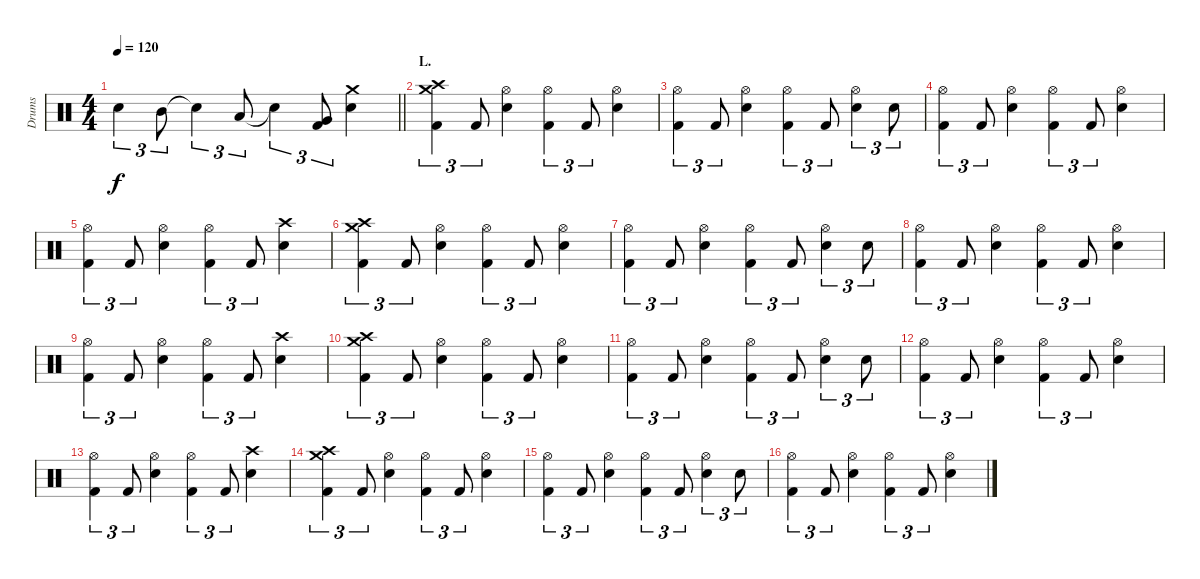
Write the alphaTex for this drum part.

\track ("Drums" "Drums") {instrument percussion}
\staff {score}
\articulation defaults
\ts (4 4)
\tempo 120
\clef neutral
\barLineRight lightlight
\ks c "Electric Snare (hit)".4{tu (3 2) dy f} "Mid Tom (hit)".8{tu (3 2)} "Snare (hit)"{t}.4{tu (3 2)} "Low Tom (hit)".8{tu (3 2)} "Snare (hit)"{t}.4{tu (3 2)}
("Very Low Tom (hit)" "Kick (hit) 2").8{tu (3 2)} ("Crash medium (hit)" "Electric Snare (hit)").4 |
\section ("" "L.")
("Crash medium (hit)" "Crash high (hit)" "Kick (hit) 2").4{tu (3 2)} "Kick (hit) 2".8{tu (3 2)} ("Hi-Hat (open)" "Electric Snare (hit)").4 ("Hi-Hat (open)" "Kick (hit) 2").4{tu (3 2)} "Kick (hit) 2".8{tu (3 2)} ("Hi-Hat (open)" "Electric Snare (hit)").4 |
("Hi-Hat (open)" "Kick (hit) 2").4{tu (3 2)} "Kick (hit) 2".8{tu (3 2)} ("Hi-Hat (open)" "Electric Snare (hit)").4 ("Hi-Hat (open)" "Kick (hit) 2").4{tu (3 2)} "Kick (hit) 2".8{tu (3 2)} ("Hi-Hat (open)" "Electric Snare (hit)").4{tu (3 2)} "Electric Snare (hit)".8{tu (3 2)} |
("Hi-Hat (open)" "Kick (hit) 2").4{tu (3 2)} "Kick (hit) 2".8{tu (3 2)} ("Hi-Hat (open)" "Electric Snare (hit)").4 ("Hi-Hat (open)" "Kick (hit) 2").4{tu (3 2)} "Kick (hit) 2".8{tu (3 2)} ("Hi-Hat (open)" "Electric Snare (hit)").4 |
("Hi-Hat (open)" "Kick (hit) 2").4{tu (3 2)} "Kick (hit) 2".8{tu (3 2)} ("Hi-Hat (open)" "Electric Snare (hit)").4 ("Hi-Hat (open)" "Kick (hit) 2").4{tu (3 2)} "Kick (hit) 2".8{tu (3 2)} ("Crash high (hit)" "Electric Snare (hit)").4 |
("Crash medium (hit)" "Crash high (hit)" "Kick (hit) 2").4{tu (3 2)} "Kick (hit) 2".8{tu (3 2)} ("Hi-Hat (open)" "Electric Snare (hit)").4 ("Hi-Hat (open)" "Kick (hit) 2").4{tu (3 2)} "Kick (hit) 2".8{tu (3 2)} ("Hi-Hat (open)" "Electric Snare (hit)").4 |
("Hi-Hat (open)" "Kick (hit) 2").4{tu (3 2)} "Kick (hit) 2".8{tu (3 2)} ("Hi-Hat (open)" "Electric Snare (hit)").4 ("Hi-Hat (open)" "Kick (hit) 2").4{tu (3 2)} "Kick (hit) 2".8{tu (3 2)} ("Hi-Hat (open)" "Electric Snare (hit)").4{tu (3 2)} "Electric Snare (hit)".8{tu (3 2)} |
("Hi-Hat (open)" "Kick (hit) 2").4{tu (3 2)} "Kick (hit) 2".8{tu (3 2)} ("Hi-Hat (open)" "Electric Snare (hit)").4 ("Hi-Hat (open)" "Kick (hit) 2").4{tu (3 2)} "Kick (hit) 2".8{tu (3 2)} ("Hi-Hat (open)" "Electric Snare (hit)").4 |
("Hi-Hat (open)" "Kick (hit) 2").4{tu (3 2)} "Kick (hit) 2".8{tu (3 2)} ("Hi-Hat (open)" "Electric Snare (hit)").4 ("Hi-Hat (open)" "Kick (hit) 2").4{tu (3 2)} "Kick (hit) 2".8{tu (3 2)} ("Crash high (hit)" "Electric Snare (hit)").4 |
("Crash medium (hit)" "Crash high (hit)" "Kick (hit) 2").4{tu (3 2)} "Kick (hit) 2".8{tu (3 2)} ("Hi-Hat (open)" "Electric Snare (hit)").4 ("Hi-Hat (open)" "Kick (hit) 2").4{tu (3 2)} "Kick (hit) 2".8{tu (3 2)} ("Hi-Hat (open)" "Electric Snare (hit)").4 |
("Hi-Hat (open)" "Kick (hit) 2").4{tu (3 2)} "Kick (hit) 2".8{tu (3 2)} ("Hi-Hat (open)" "Electric Snare (hit)").4 ("Hi-Hat (open)" "Kick (hit) 2").4{tu (3 2)} "Kick (hit) 2".8{tu (3 2)} ("Hi-Hat (open)" "Electric Snare (hit)").4{tu (3 2)} "Electric Snare (hit)".8{tu (3 2)} |
("Hi-Hat (open)" "Kick (hit) 2").4{tu (3 2)} "Kick (hit) 2".8{tu (3 2)} ("Hi-Hat (open)" "Electric Snare (hit)").4 ("Hi-Hat (open)" "Kick (hit) 2").4{tu (3 2)} "Kick (hit) 2".8{tu (3 2)} ("Hi-Hat (open)" "Electric Snare (hit)").4 |
("Hi-Hat (open)" "Kick (hit) 2").4{tu (3 2)} "Kick (hit) 2".8{tu (3 2)} ("Hi-Hat (open)" "Electric Snare (hit)").4 ("Hi-Hat (open)" "Kick (hit) 2").4{tu (3 2)} "Kick (hit) 2".8{tu (3 2)} ("Crash high (hit)" "Electric Snare (hit)").4 |
("Crash medium (hit)" "Crash high (hit)" "Kick (hit) 2").4{tu (3 2)} "Kick (hit) 2".8{tu (3 2)} ("Hi-Hat (open)" "Electric Snare (hit)").4 ("Hi-Hat (open)" "Kick (hit) 2").4{tu (3 2)} "Kick (hit) 2".8{tu (3 2)} ("Hi-Hat (open)" "Electric Snare (hit)").4 |
("Hi-Hat (open)" "Kick (hit) 2").4{tu (3 2)} "Kick (hit) 2".8{tu (3 2)} ("Hi-Hat (open)" "Electric Snare (hit)").4 ("Hi-Hat (open)" "Kick (hit) 2").4{tu (3 2)} "Kick (hit) 2".8{tu (3 2)} ("Hi-Hat (open)" "Electric Snare (hit)").4{tu (3 2)} "Electric Snare (hit)".8{tu (3 2)} |
("Hi-Hat (open)" "Kick (hit) 2").4{tu (3 2)} "Kick (hit) 2".8{tu (3 2)} ("Hi-Hat (open)" "Electric Snare (hit)").4 ("Hi-Hat (open)" "Kick (hit) 2").4{tu (3 2)} "Kick (hit) 2".8{tu (3 2)} ("Hi-Hat (open)" "Electric Snare (hit)").4
